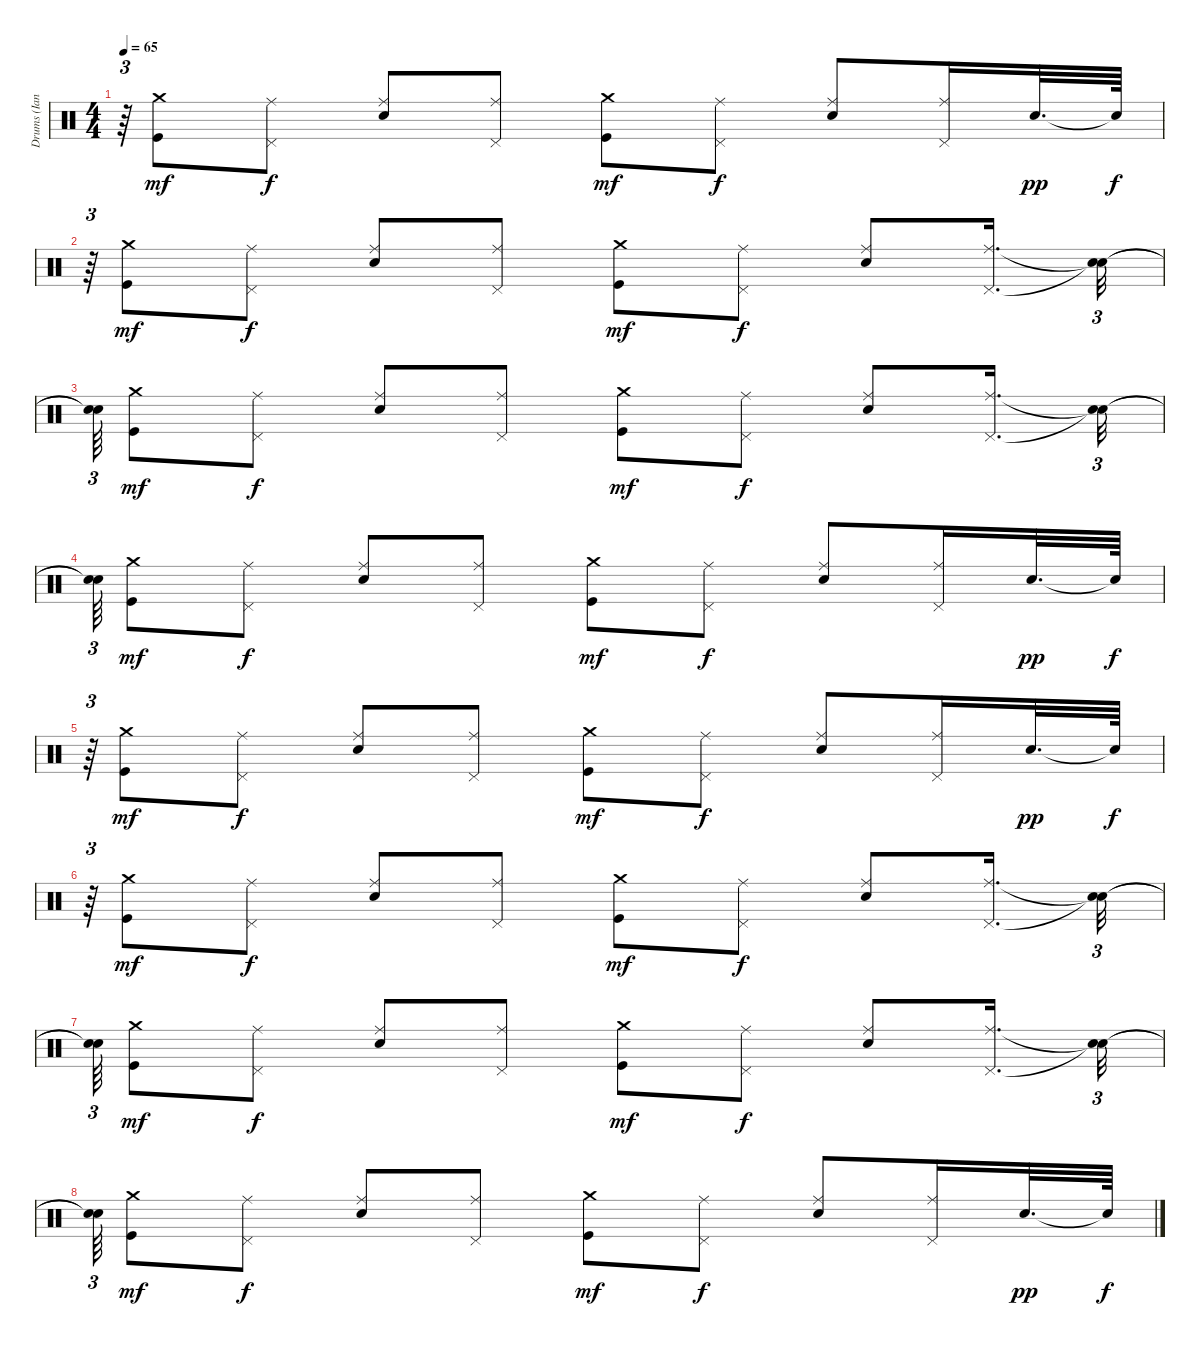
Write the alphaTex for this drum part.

\track ("Drums (Ian Paice)" "Drums (Ian") {instrument percussion}
\staff {score}
\articulation defaults
\ts (4 4)
\tempo 65
\clef neutral
\ks c
r.64{tu (3 2) dy f} ("Crash medium (hit)" "Kick (hit)").8{dy mf} ("Ride (middle)" "Pedal Hi-Hat (hit)").8{dy f} ("Ride (middle)" "Electric Snare (hit)").8 ("Ride (middle)" "Pedal Hi-Hat (hit)").8 ("Crash medium (hit)" "Kick (hit)").8{dy mf} ("Ride (middle)" "Pedal Hi-Hat (hit)").8{dy f} ("Ride (middle)" "Electric Snare (hit)").8 ("Ride (middle)" "Pedal Hi-Hat (hit)").16 "Electric Snare (hit)".32{d dy pp} "Snare (hit)"{t}.64{dy f} |
r.64{tu (3 2)} ("Crash medium (hit)" "Kick (hit)").8{dy mf} ("Ride (middle)" "Pedal Hi-Hat (hit)").8{dy f} ("Ride (middle)" "Electric Snare (hit)").8 ("Ride (middle)" "Pedal Hi-Hat (hit)").8 ("Crash medium (hit)" "Kick (hit)").8{dy mf} ("Ride (middle)" "Pedal Hi-Hat (hit)").8{dy f} ("Ride (middle)" "Electric Snare (hit)").8 ("Ride (middle)" "Pedal Hi-Hat (hit)").16{d} ("Snare (hit)"{t} "Snare (hit)"{t}).32{tu (3 2)} |
("Snare (hit)"{t} "Snare (hit)"{t}).64{tu (3 2)} ("Crash medium (hit)" "Kick (hit)").8{dy mf} ("Ride (middle)" "Pedal Hi-Hat (hit)").8{dy f} ("Ride (middle)" "Electric Snare (hit)").8 ("Ride (middle)" "Pedal Hi-Hat (hit)").8 ("Crash medium (hit)" "Kick (hit)").8{dy mf} ("Ride (middle)" "Pedal Hi-Hat (hit)").8{dy f} ("Ride (middle)" "Electric Snare (hit)").8 ("Ride (middle)" "Pedal Hi-Hat (hit)").16{d} ("Snare (hit)"{t} "Snare (hit)"{t}).32{tu (3 2)} |
("Snare (hit)"{t} "Snare (hit)"{t}).64{tu (3 2)} ("Crash medium (hit)" "Kick (hit)").8{dy mf} ("Ride (middle)" "Pedal Hi-Hat (hit)").8{dy f} ("Ride (middle)" "Electric Snare (hit)").8 ("Ride (middle)" "Pedal Hi-Hat (hit)").8 ("Crash medium (hit)" "Kick (hit)").8{dy mf} ("Ride (middle)" "Pedal Hi-Hat (hit)").8{dy f} ("Ride (middle)" "Electric Snare (hit)").8 ("Ride (middle)" "Pedal Hi-Hat (hit)").16 "Electric Snare (hit)".32{d dy pp} "Snare (hit)"{t}.64{dy f} |
r.64{tu (3 2)} ("Crash medium (hit)" "Kick (hit)").8{dy mf} ("Ride (middle)" "Pedal Hi-Hat (hit)").8{dy f} ("Ride (middle)" "Electric Snare (hit)").8 ("Ride (middle)" "Pedal Hi-Hat (hit)").8 ("Crash medium (hit)" "Kick (hit)").8{dy mf} ("Ride (middle)" "Pedal Hi-Hat (hit)").8{dy f} ("Ride (middle)" "Electric Snare (hit)").8 ("Ride (middle)" "Pedal Hi-Hat (hit)").16 "Electric Snare (hit)".32{d dy pp} "Snare (hit)"{t}.64{dy f} |
r.64{tu (3 2)} ("Crash medium (hit)" "Kick (hit)").8{dy mf} ("Ride (middle)" "Pedal Hi-Hat (hit)").8{dy f} ("Ride (middle)" "Electric Snare (hit)").8 ("Ride (middle)" "Pedal Hi-Hat (hit)").8 ("Crash medium (hit)" "Kick (hit)").8{dy mf} ("Ride (middle)" "Pedal Hi-Hat (hit)").8{dy f} ("Ride (middle)" "Electric Snare (hit)").8 ("Ride (middle)" "Pedal Hi-Hat (hit)").16{d} ("Snare (hit)"{t} "Snare (hit)"{t}).32{tu (3 2)} |
("Snare (hit)"{t} "Snare (hit)"{t}).64{tu (3 2)} ("Crash medium (hit)" "Kick (hit)").8{dy mf} ("Ride (middle)" "Pedal Hi-Hat (hit)").8{dy f} ("Ride (middle)" "Electric Snare (hit)").8 ("Ride (middle)" "Pedal Hi-Hat (hit)").8 ("Crash medium (hit)" "Kick (hit)").8{dy mf} ("Ride (middle)" "Pedal Hi-Hat (hit)").8{dy f} ("Ride (middle)" "Electric Snare (hit)").8 ("Ride (middle)" "Pedal Hi-Hat (hit)").16{d} ("Snare (hit)"{t} "Snare (hit)"{t}).32{tu (3 2)} |
("Snare (hit)"{t} "Snare (hit)"{t}).64{tu (3 2)} ("Crash medium (hit)" "Kick (hit)").8{dy mf} ("Ride (middle)" "Pedal Hi-Hat (hit)").8{dy f} ("Ride (middle)" "Electric Snare (hit)").8 ("Ride (middle)" "Pedal Hi-Hat (hit)").8 ("Crash medium (hit)" "Kick (hit)").8{dy mf} ("Ride (middle)" "Pedal Hi-Hat (hit)").8{dy f} ("Ride (middle)" "Electric Snare (hit)").8 ("Ride (middle)" "Pedal Hi-Hat (hit)").16 "Electric Snare (hit)".32{d dy pp} "Snare (hit)"{t}.64{dy f}
